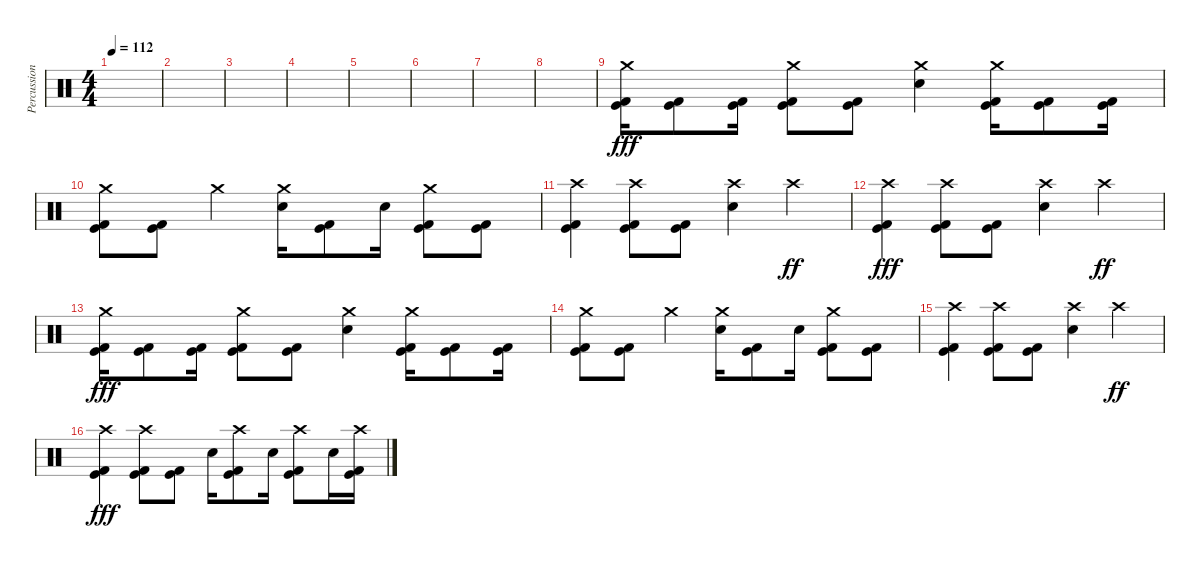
\track ("Percussion" "Percussion") {instrument percussion}
\staff {score}
\articulation defaults
\ts (4 4)
\tempo 112
\clef neutral
\ks c
|
|
|
|
|
|
|
|
("Crash medium (hit)" "Kick (hit)" "Kick (hit) 2").16{dy fff} ("Kick (hit)" "Kick (hit) 2").8 ("Kick (hit)" "Kick (hit) 2").16 ("Crash medium (hit)" "Kick (hit)" "Kick (hit) 2").8 ("Kick (hit)" "Kick (hit) 2").8 ("Crash medium (hit)" "Electric Snare (hit)").4 ("Crash medium (hit)" "Kick (hit)" "Kick (hit) 2").16 ("Kick (hit)" "Kick (hit) 2").8 ("Kick (hit)" "Kick (hit) 2").16 |
("Crash medium (hit)" "Kick (hit)" "Kick (hit) 2").8 ("Kick (hit)" "Kick (hit) 2").8 "Crash medium (hit)".4 ("Crash medium (hit)" "Electric Snare (hit)").16 ("Kick (hit)" "Kick (hit) 2").8 "Electric Snare (hit)".16 ("Crash medium (hit)" "Kick (hit)" "Kick (hit) 2").8 ("Kick (hit)" "Kick (hit) 2").8 |
("Crash high (hit)" "Kick (hit)" "Kick (hit) 2").4 ("Crash high (hit)" "Kick (hit)" "Kick (hit) 2").8 ("Kick (hit)" "Kick (hit) 2").8 ("Crash high (hit)" "Electric Snare (hit)").4 "Crash high (hit)".4{dy ff} |
("Crash high (hit)" "Kick (hit)" "Kick (hit) 2").4{dy fff} ("Crash high (hit)" "Kick (hit)" "Kick (hit) 2").8 ("Kick (hit)" "Kick (hit) 2").8 ("Crash high (hit)" "Electric Snare (hit)").4 "Crash high (hit)".4{dy ff} |
("Crash medium (hit)" "Kick (hit)" "Kick (hit) 2").16{dy fff} ("Kick (hit)" "Kick (hit) 2").8 ("Kick (hit)" "Kick (hit) 2").16 ("Crash medium (hit)" "Kick (hit)" "Kick (hit) 2").8 ("Kick (hit)" "Kick (hit) 2").8 ("Crash medium (hit)" "Electric Snare (hit)").4 ("Crash medium (hit)" "Kick (hit)" "Kick (hit) 2").16 ("Kick (hit)" "Kick (hit) 2").8 ("Kick (hit)" "Kick (hit) 2").16 |
("Crash medium (hit)" "Kick (hit)" "Kick (hit) 2").8 ("Kick (hit)" "Kick (hit) 2").8 "Crash medium (hit)".4 ("Crash medium (hit)" "Electric Snare (hit)").16 ("Kick (hit)" "Kick (hit) 2").8 "Electric Snare (hit)".16 ("Crash medium (hit)" "Kick (hit)" "Kick (hit) 2").8 ("Kick (hit)" "Kick (hit) 2").8 |
("Crash high (hit)" "Kick (hit)" "Kick (hit) 2").4 ("Crash high (hit)" "Kick (hit)" "Kick (hit) 2").8 ("Kick (hit)" "Kick (hit) 2").8 ("Crash high (hit)" "Electric Snare (hit)").4 "Crash high (hit)".4{dy ff} |
("Crash high (hit)" "Kick (hit)" "Kick (hit) 2").4{dy fff} ("Crash high (hit)" "Kick (hit)" "Kick (hit) 2").8 ("Kick (hit)" "Kick (hit) 2").8 "Electric Snare (hit)".16 ("Crash high (hit)" "Kick (hit)" "Kick (hit) 2").8 "Electric Snare (hit)".16 ("Crash high (hit)" "Kick (hit)" "Kick (hit) 2").8 "Electric Snare (hit)".16 ("Crash high (hit)" "Kick (hit)" "Kick (hit) 2").16
